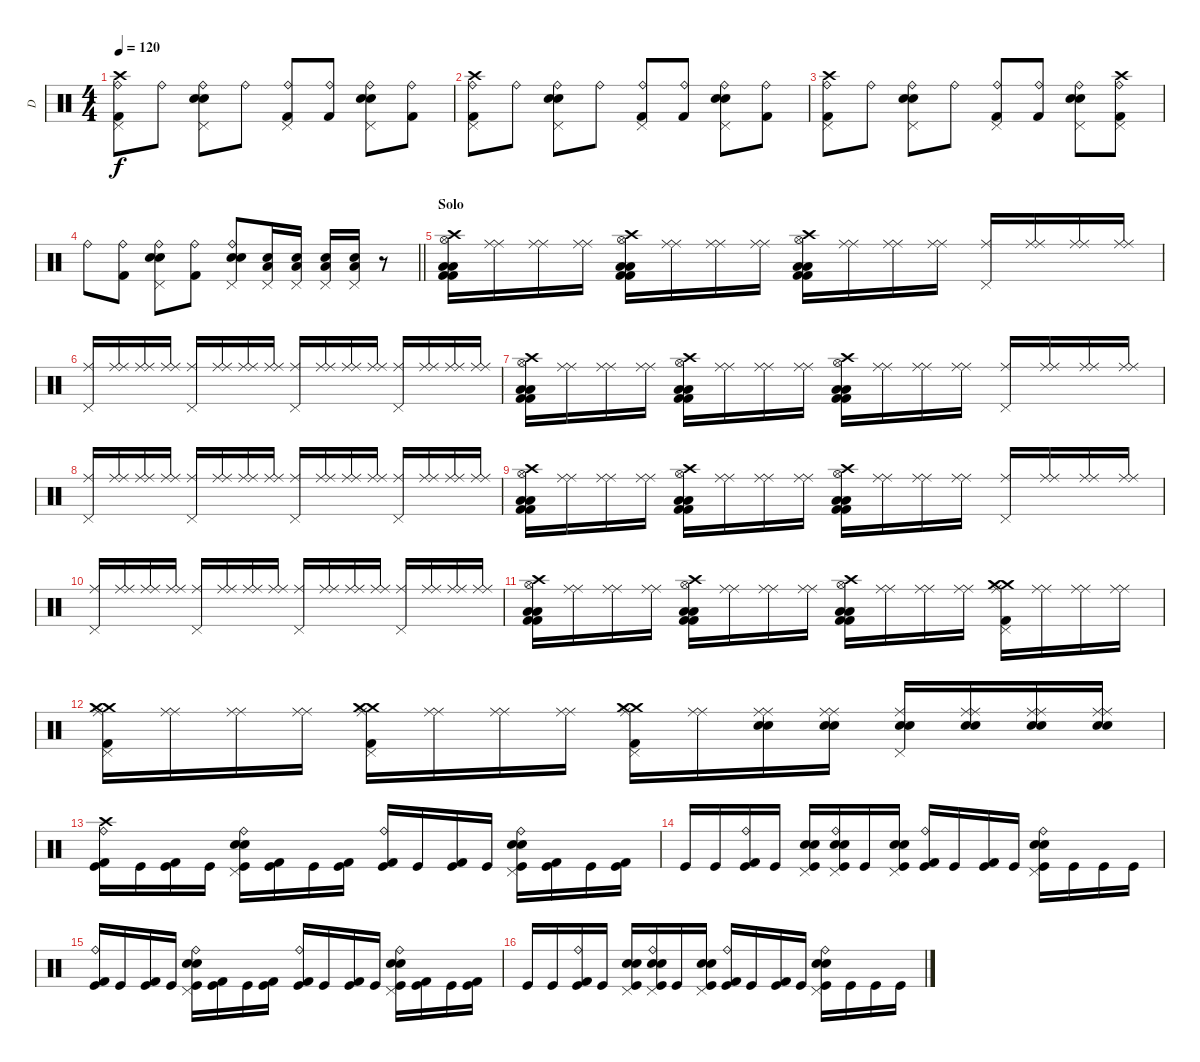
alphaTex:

\track ("D" "D") {instrument percussion}
\staff {score}
\articulation defaults
\ts (4 4)
\tempo 120
\clef neutral
\ks c
("Crash high (hit)" "Kick (hit) 2" "Ride (bell)" "Pedal Hi-Hat (hit)").8{dy f} "Ride (bell)".8 ("Electric Snare (hit)" "Electric Snare (hit)" "Ride (bell)" "Pedal Hi-Hat (hit)").8 "Ride (bell)".8 ("Kick (hit) 2" "Ride (bell)" "Pedal Hi-Hat (hit)").8 ("Kick (hit) 2" "Ride (bell)").8 ("Electric Snare (hit)" "Electric Snare (hit)" "Ride (bell)" "Pedal Hi-Hat (hit)").8 ("Kick (hit) 2" "Ride (bell)").8 |
("Crash high (hit)" "Kick (hit) 2" "Ride (bell)" "Pedal Hi-Hat (hit)").8 "Ride (bell)".8 ("Electric Snare (hit)" "Electric Snare (hit)" "Ride (bell)" "Pedal Hi-Hat (hit)").8 "Ride (bell)".8 ("Kick (hit) 2" "Ride (bell)" "Pedal Hi-Hat (hit)").8 ("Kick (hit) 2" "Ride (bell)").8 ("Electric Snare (hit)" "Electric Snare (hit)" "Ride (bell)" "Pedal Hi-Hat (hit)").8 ("Kick (hit) 2" "Ride (bell)").8 |
("Crash high (hit)" "Kick (hit) 2" "Ride (bell)" "Pedal Hi-Hat (hit)").8 "Ride (bell)".8 ("Electric Snare (hit)" "Electric Snare (hit)" "Ride (bell)" "Pedal Hi-Hat (hit)").8 "Ride (bell)".8 ("Kick (hit) 2" "Ride (bell)" "Pedal Hi-Hat (hit)").8 ("Kick (hit) 2" "Ride (bell)").8 ("Electric Snare (hit)" "Electric Snare (hit)" "Ride (bell)" "Pedal Hi-Hat (hit)").8 ("Crash high (hit)" "Kick (hit) 2" "Ride (bell)" "Pedal Hi-Hat (hit)").8 |
\barLineRight lightlight "Ride (bell)".8
("Kick (hit) 2" "Ride (bell)").8 ("Electric Snare (hit)" "Electric Snare (hit)" "Pedal Hi-Hat (hit)" "Ride (bell)").8 ("Kick (hit) 2" "Ride (bell)").8 ("Electric Snare (hit)" "Electric Snare (hit)" "Pedal Hi-Hat (hit)" "Ride (bell)").8 ("Electric Snare (hit)" "Low Floor Tom (hit)" "Pedal Hi-Hat (hit)").16 ("Electric Snare (hit)" "Low Floor Tom (hit)" "Pedal Hi-Hat (hit)").16 ("Electric Snare (hit)" "Low Floor Tom (hit)" "Pedal Hi-Hat (hit)").16 ("Electric Snare (hit)" "Low Floor Tom (hit)" "Pedal Hi-Hat (hit)").16 r.8 |
\section ("" "Solo")
("Crash high (hit)" "Hi-Hat (open)" "Low Floor Tom (hit)" "Low Tom (hit)" "Kick (hit) 2" "Kick (hit) 2").16 ("Ride (middle)" "Ride (middle)").16 ("Ride (middle)" "Ride (middle)").16 ("Ride (middle)" "Ride (middle)").16 ("Crash high (hit)" "Hi-Hat (open)" "Low Floor Tom (hit)" "Low Tom (hit)" "Kick (hit) 2" "Kick (hit) 2").16 ("Ride (middle)" "Ride (middle)").16 ("Ride (middle)" "Ride (middle)").16 ("Ride (middle)" "Ride (middle)").16 ("Crash high (hit)" "Hi-Hat (open)" "Low Floor Tom (hit)" "Low Tom (hit)" "Kick (hit) 2" "Kick (hit) 2").16 ("Ride (middle)" "Ride (middle)").16 ("Ride (middle)" "Ride (middle)").16 ("Ride (middle)" "Ride (middle)").16 ("Pedal Hi-Hat (hit)" "Ride (middle)").16 ("Ride (middle)" "Ride (middle)").16 ("Ride (middle)" "Ride (middle)").16 ("Ride (middle)" "Ride (middle)").16 |
("Pedal Hi-Hat (hit)" "Ride (middle)").16 ("Ride (middle)" "Ride (middle)").16 ("Ride (middle)" "Ride (middle)").16 ("Ride (middle)" "Ride (middle)").16 ("Pedal Hi-Hat (hit)" "Ride (middle)").16 ("Ride (middle)" "Ride (middle)").16 ("Ride (middle)" "Ride (middle)").16 ("Ride (middle)" "Ride (middle)").16 ("Pedal Hi-Hat (hit)" "Ride (middle)").16 ("Ride (middle)" "Ride (middle)").16 ("Ride (middle)" "Ride (middle)").16 ("Ride (middle)" "Ride (middle)").16 ("Pedal Hi-Hat (hit)" "Ride (middle)").16 ("Ride (middle)" "Ride (middle)").16 ("Ride (middle)" "Ride (middle)").16 ("Ride (middle)" "Ride (middle)").16 |
("Crash high (hit)" "Hi-Hat (open)" "Low Floor Tom (hit)" "Low Tom (hit)" "Kick (hit) 2" "Kick (hit) 2").16 ("Ride (middle)" "Ride (middle)").16 ("Ride (middle)" "Ride (middle)").16 ("Ride (middle)" "Ride (middle)").16 ("Crash high (hit)" "Hi-Hat (open)" "Low Floor Tom (hit)" "Low Tom (hit)" "Kick (hit) 2" "Kick (hit) 2").16 ("Ride (middle)" "Ride (middle)").16 ("Ride (middle)" "Ride (middle)").16 ("Ride (middle)" "Ride (middle)").16 ("Crash high (hit)" "Hi-Hat (open)" "Low Floor Tom (hit)" "Low Tom (hit)" "Kick (hit) 2" "Kick (hit) 2").16 ("Ride (middle)" "Ride (middle)").16 ("Ride (middle)" "Ride (middle)").16 ("Ride (middle)" "Ride (middle)").16 ("Pedal Hi-Hat (hit)" "Ride (middle)").16 ("Ride (middle)" "Ride (middle)").16 ("Ride (middle)" "Ride (middle)").16 ("Ride (middle)" "Ride (middle)").16 |
("Pedal Hi-Hat (hit)" "Ride (middle)").16 ("Ride (middle)" "Ride (middle)").16 ("Ride (middle)" "Ride (middle)").16 ("Ride (middle)" "Ride (middle)").16 ("Pedal Hi-Hat (hit)" "Ride (middle)").16 ("Ride (middle)" "Ride (middle)").16 ("Ride (middle)" "Ride (middle)").16 ("Ride (middle)" "Ride (middle)").16 ("Pedal Hi-Hat (hit)" "Ride (middle)").16 ("Ride (middle)" "Ride (middle)").16 ("Ride (middle)" "Ride (middle)").16 ("Ride (middle)" "Ride (middle)").16 ("Pedal Hi-Hat (hit)" "Ride (middle)").16 ("Ride (middle)" "Ride (middle)").16 ("Ride (middle)" "Ride (middle)").16 ("Ride (middle)" "Ride (middle)").16 |
("Crash high (hit)" "Hi-Hat (open)" "Low Floor Tom (hit)" "Low Tom (hit)" "Kick (hit) 2" "Kick (hit) 2").16 ("Ride (middle)" "Ride (middle)").16 ("Ride (middle)" "Ride (middle)").16 ("Ride (middle)" "Ride (middle)").16 ("Crash high (hit)" "Hi-Hat (open)" "Low Floor Tom (hit)" "Low Tom (hit)" "Kick (hit) 2" "Kick (hit) 2").16 ("Ride (middle)" "Ride (middle)").16 ("Ride (middle)" "Ride (middle)").16 ("Ride (middle)" "Ride (middle)").16 ("Crash high (hit)" "Hi-Hat (open)" "Low Floor Tom (hit)" "Low Tom (hit)" "Kick (hit) 2" "Kick (hit) 2").16 ("Ride (middle)" "Ride (middle)").16 ("Ride (middle)" "Ride (middle)").16 ("Ride (middle)" "Ride (middle)").16 ("Pedal Hi-Hat (hit)" "Ride (middle)").16 ("Ride (middle)" "Ride (middle)").16 ("Ride (middle)" "Ride (middle)").16 ("Ride (middle)" "Ride (middle)").16 |
("Pedal Hi-Hat (hit)" "Ride (middle)").16 ("Ride (middle)" "Ride (middle)").16 ("Ride (middle)" "Ride (middle)").16 ("Ride (middle)" "Ride (middle)").16 ("Pedal Hi-Hat (hit)" "Ride (middle)").16 ("Ride (middle)" "Ride (middle)").16 ("Ride (middle)" "Ride (middle)").16 ("Ride (middle)" "Ride (middle)").16 ("Pedal Hi-Hat (hit)" "Ride (middle)").16 ("Ride (middle)" "Ride (middle)").16 ("Ride (middle)" "Ride (middle)").16 ("Ride (middle)" "Ride (middle)").16 ("Pedal Hi-Hat (hit)" "Ride (middle)").16 ("Ride (middle)" "Ride (middle)").16 ("Ride (middle)" "Ride (middle)").16 ("Ride (middle)" "Ride (middle)").16 |
("Crash high (hit)" "Hi-Hat (open)" "Low Floor Tom (hit)" "Low Tom (hit)" "Kick (hit) 2" "Kick (hit) 2").16 ("Ride (middle)" "Ride (middle)").16 ("Ride (middle)" "Ride (middle)").16 ("Ride (middle)" "Ride (middle)").16 ("Crash high (hit)" "Hi-Hat (open)" "Low Floor Tom (hit)" "Low Tom (hit)" "Kick (hit) 2" "Kick (hit) 2").16 ("Ride (middle)" "Ride (middle)").16 ("Ride (middle)" "Ride (middle)").16 ("Ride (middle)" "Ride (middle)").16 ("Crash high (hit)" "Hi-Hat (open)" "Low Floor Tom (hit)" "Low Tom (hit)" "Kick (hit) 2" "Kick (hit) 2").16 ("Ride (middle)" "Ride (middle)").16 ("Ride (middle)" "Ride (middle)").16 ("Ride (middle)" "Ride (middle)").16 ("Crash medium (hit)" "Crash medium (hit)" "Kick (hit) 2" "Pedal Hi-Hat (hit)" "Ride (middle)").16 ("Ride (middle)" "Ride (middle)").16 ("Ride (middle)" "Ride (middle)").16 ("Ride (middle)" "Ride (middle)").16 |
("Crash medium (hit)" "Crash medium (hit)" "Kick (hit) 2" "Pedal Hi-Hat (hit)" "Ride (middle)").16 ("Ride (middle)" "Ride (middle)").16 ("Ride (middle)" "Ride (middle)").16 ("Ride (middle)" "Ride (middle)").16 ("Crash medium (hit)" "Crash medium (hit)" "Kick (hit) 2" "Pedal Hi-Hat (hit)" "Ride (middle)").16 ("Ride (middle)" "Ride (middle)").16 ("Ride (middle)" "Ride (middle)").16 ("Ride (middle)" "Ride (middle)").16 ("Crash medium (hit)" "Crash medium (hit)" "Kick (hit) 2" "Pedal Hi-Hat (hit)" "Ride (middle)").16 ("Ride (middle)" "Ride (middle)").16 ("Electric Snare (hit)" "Electric Snare (hit)" "Ride (middle)" "Ride (middle)").16 ("Electric Snare (hit)" "Electric Snare (hit)" "Ride (middle)" "Ride (middle)").16 ("Electric Snare (hit)" "Electric Snare (hit)" "Pedal Hi-Hat (hit)" "Ride (middle)").16 ("Electric Snare (hit)" "Electric Snare (hit)" "Ride (middle)" "Ride (middle)").16 ("Electric Snare (hit)" "Electric Snare (hit)" "Ride (middle)" "Ride (middle)").16 ("Electric Snare (hit)" "Electric Snare (hit)" "Ride (middle)" "Ride (middle)").16 |
("Crash high (hit)" "Kick (hit) 2" "Kick (hit)" "Ride (bell)").16 "Kick (hit)".16 ("Kick (hit) 2" "Kick (hit)").16 "Kick (hit)".16 ("Electric Snare (hit)" "Electric Snare (hit)" "Pedal Hi-Hat (hit)" "Kick (hit)" "Ride (bell)").16 ("Kick (hit) 2" "Kick (hit)").16 "Kick (hit)".16 ("Kick (hit) 2" "Kick (hit)").16 ("Kick (hit) 2" "Kick (hit)" "Ride (bell)").16 "Kick (hit)".16 ("Kick (hit) 2" "Kick (hit)").16 "Kick (hit)".16 ("Electric Snare (hit)" "Electric Snare (hit)" "Pedal Hi-Hat (hit)" "Kick (hit)" "Ride (bell)").16 ("Kick (hit) 2" "Kick (hit)").16 "Kick (hit)".16 ("Kick (hit) 2" "Kick (hit)").16 |
"Kick (hit)".16 "Kick (hit)".16 ("Kick (hit) 2" "Kick (hit)" "Ride (bell)").16 "Kick (hit)".16 ("Electric Snare (hit)" "Electric Snare (hit)" "Pedal Hi-Hat (hit)" "Kick (hit)").16 ("Electric Snare (hit)" "Electric Snare (hit)" "Pedal Hi-Hat (hit)" "Kick (hit)" "Ride (bell)").16 "Kick (hit)".16 ("Electric Snare (hit)" "Electric Snare (hit)" "Pedal Hi-Hat (hit)" "Kick (hit)").16 ("Kick (hit) 2" "Kick (hit)" "Ride (bell)").16 "Kick (hit)".16 ("Kick (hit) 2" "Kick (hit)").16 "Kick (hit)".16 ("Electric Snare (hit)" "Electric Snare (hit)" "Pedal Hi-Hat (hit)" "Kick (hit)" "Ride (bell)").16 "Kick (hit)".16 "Kick (hit)".16 "Kick (hit)".16 |
("Kick (hit) 2" "Kick (hit)" "Ride (bell)").16 "Kick (hit)".16 ("Kick (hit) 2" "Kick (hit)").16 "Kick (hit)".16 ("Electric Snare (hit)" "Electric Snare (hit)" "Pedal Hi-Hat (hit)" "Kick (hit)" "Ride (bell)").16 ("Kick (hit) 2" "Kick (hit)").16 "Kick (hit)".16 ("Kick (hit) 2" "Kick (hit)").16 ("Kick (hit) 2" "Kick (hit)" "Ride (bell)").16 "Kick (hit)".16 ("Kick (hit) 2" "Kick (hit)").16 "Kick (hit)".16 ("Electric Snare (hit)" "Electric Snare (hit)" "Pedal Hi-Hat (hit)" "Kick (hit)" "Ride (bell)").16 ("Kick (hit) 2" "Kick (hit)").16 "Kick (hit)".16 ("Kick (hit) 2" "Kick (hit)").16 |
"Kick (hit)".16 "Kick (hit)".16 ("Kick (hit) 2" "Kick (hit)" "Ride (bell)").16 "Kick (hit)".16 ("Electric Snare (hit)" "Electric Snare (hit)" "Pedal Hi-Hat (hit)" "Kick (hit)").16 ("Electric Snare (hit)" "Electric Snare (hit)" "Pedal Hi-Hat (hit)" "Kick (hit)" "Ride (bell)").16 "Kick (hit)".16 ("Electric Snare (hit)" "Electric Snare (hit)" "Pedal Hi-Hat (hit)" "Kick (hit)").16 ("Kick (hit) 2" "Kick (hit)" "Ride (bell)").16 "Kick (hit)".16 ("Kick (hit) 2" "Kick (hit)").16 "Kick (hit)".16 ("Electric Snare (hit)" "Electric Snare (hit)" "Pedal Hi-Hat (hit)" "Kick (hit)" "Ride (bell)").16 "Kick (hit)".16 "Kick (hit)".16 "Kick (hit)".16
